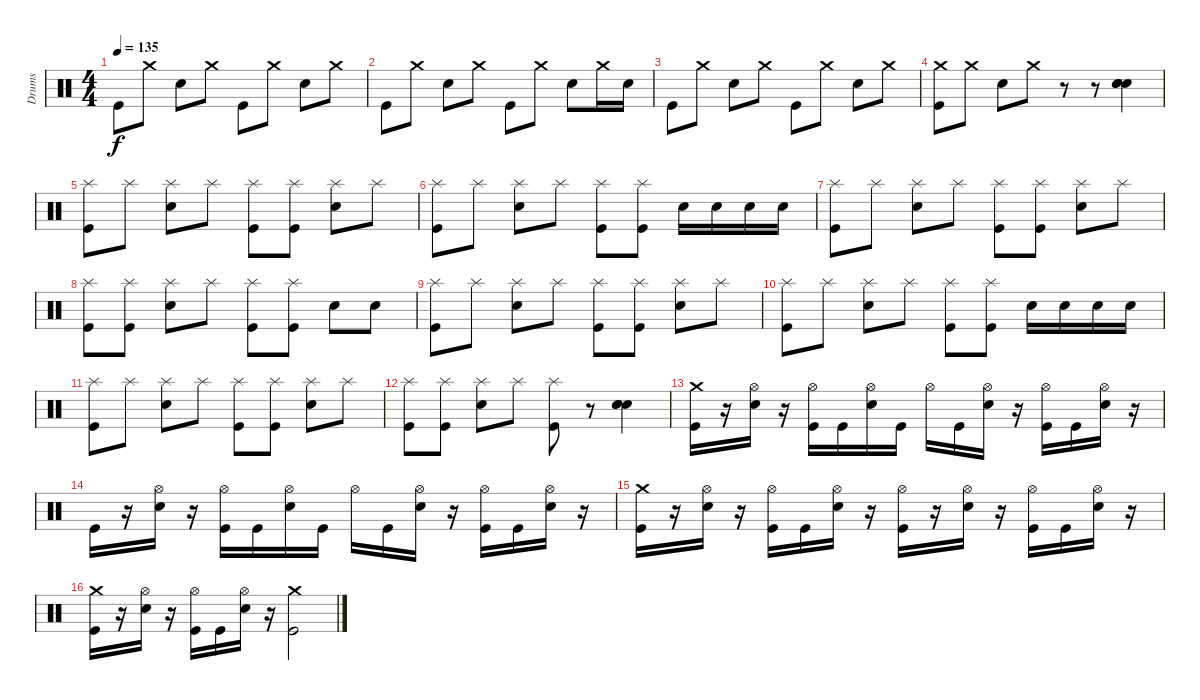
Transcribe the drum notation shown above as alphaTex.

\track ("Drums" "Drums") {instrument percussion}
\staff {score}
\articulation defaults
\ts (4 4)
\tempo 135
\clef neutral
\ks c "Kick (hit)".8{dy f} "Crash medium (hit)".8 "Electric Snare (hit)".8 "Crash medium (hit)".8 "Kick (hit)".8 "Crash medium (hit)".8 "Electric Snare (hit)".8 "Crash medium (hit)".8
|
"Kick (hit)".8 "Crash medium (hit)".8 "Electric Snare (hit)".8 "Crash medium (hit)".8 "Kick (hit)".8 "Crash medium (hit)".8 "Electric Snare (hit)".8 "Crash medium (hit)".16 "Electric Snare (hit)".16 |
"Kick (hit)".8 "Crash medium (hit)".8 "Electric Snare (hit)".8 "Crash medium (hit)".8 "Kick (hit)".8 "Crash medium (hit)".8 "Electric Snare (hit)".8 "Crash medium (hit)".8 |
("Crash medium (hit)" "Kick (hit)").8 "Crash medium (hit)".8 "Electric Snare (hit)".8 "Crash medium (hit)".8 r.8 r.8 ("Hand Clap (hit)" "Hand Clap (hit)" "Hand Clap (hit)").4 |
("Splash (hit)" "Kick (hit)").8 "Splash (hit)".8 ("Splash (hit)" "Electric Snare (hit)").8 "Splash (hit)".8 ("Splash (hit)" "Kick (hit)").8 ("Splash (hit)" "Kick (hit)").8 ("Splash (hit)" "Electric Snare (hit)").8 "Splash (hit)".8 |
("Splash (hit)" "Kick (hit)").8 "Splash (hit)".8 ("Splash (hit)" "Electric Snare (hit)").8 "Splash (hit)".8 ("Splash (hit)" "Kick (hit)").8 ("Splash (hit)" "Kick (hit)").8 "Electric Snare (hit)".16 "Electric Snare (hit)".16 "Electric Snare (hit)".16 "Electric Snare (hit)".16 |
("Splash (hit)" "Kick (hit)").8 "Splash (hit)".8 ("Splash (hit)" "Electric Snare (hit)").8 "Splash (hit)".8 ("Splash (hit)" "Kick (hit)").8 ("Splash (hit)" "Kick (hit)").8 ("Splash (hit)" "Electric Snare (hit)").8 "Splash (hit)".8 |
("Splash (hit)" "Kick (hit)").8 ("Splash (hit)" "Kick (hit)").8 ("Splash (hit)" "Electric Snare (hit)").8 "Splash (hit)".8 ("Splash (hit)" "Kick (hit)").8 ("Splash (hit)" "Kick (hit)").8 "Electric Snare (hit)".8 "Electric Snare (hit)".8 |
("Splash (hit)" "Kick (hit)").8 "Splash (hit)".8 ("Splash (hit)" "Electric Snare (hit)").8 "Splash (hit)".8 ("Splash (hit)" "Kick (hit)").8 ("Splash (hit)" "Kick (hit)").8 ("Splash (hit)" "Electric Snare (hit)").8 "Splash (hit)".8 |
("Splash (hit)" "Kick (hit)").8 "Splash (hit)".8 ("Splash (hit)" "Electric Snare (hit)").8 "Splash (hit)".8 ("Splash (hit)" "Kick (hit)").8 ("Splash (hit)" "Kick (hit)").8 "Electric Snare (hit)".16 "Electric Snare (hit)".16 "Electric Snare (hit)".16 "Electric Snare (hit)".16 |
("Splash (hit)" "Kick (hit)").8 "Splash (hit)".8 ("Splash (hit)" "Electric Snare (hit)").8 "Splash (hit)".8 ("Splash (hit)" "Kick (hit)").8 ("Splash (hit)" "Kick (hit)").8 ("Splash (hit)" "Electric Snare (hit)").8 "Splash (hit)".8 |
("Splash (hit)" "Kick (hit)").8 ("Splash (hit)" "Kick (hit)").8 ("Splash (hit)" "Electric Snare (hit)").8 "Splash (hit)".8 ("Splash (hit)" "Kick (hit)").8 r.8 ("Hand Clap (hit)" "Hand Clap (hit)" "Hand Clap (hit)").4 |
("Crash medium (hit)" "Kick (hit)").16 r.16 ("Electric Snare (hit)" "Hi-Hat (open)").16 r.16 ("Hi-Hat (open)" "Kick (hit)").16 "Kick (hit)".16 ("Electric Snare (hit)" "Hi-Hat (open)").16 "Kick (hit)".16 "Hi-Hat (open)".16 "Kick (hit)".16 ("Electric Snare (hit)" "Hi-Hat (open)").16 r.16 ("Hi-Hat (open)" "Kick (hit)").16 "Kick (hit)".16 ("Electric Snare (hit)" "Hi-Hat (open)").16 r.16 |
"Kick (hit)".16 r.16 ("Electric Snare (hit)" "Hi-Hat (open)").16 r.16 ("Hi-Hat (open)" "Kick (hit)").16 "Kick (hit)".16 ("Electric Snare (hit)" "Hi-Hat (open)").16 "Kick (hit)".16 "Hi-Hat (open)".16 "Kick (hit)".16 ("Electric Snare (hit)" "Hi-Hat (open)").16 r.16 ("Hi-Hat (open)" "Kick (hit)").16 "Kick (hit)".16 ("Electric Snare (hit)" "Hi-Hat (open)").16 r.16 |
("Crash medium (hit)" "Kick (hit)").16 r.16 ("Electric Snare (hit)" "Hi-Hat (open)").16 r.16 ("Hi-Hat (open)" "Kick (hit)").16 "Kick (hit)".16 ("Electric Snare (hit)" "Hi-Hat (open)").16 r.16 ("Hi-Hat (open)" "Kick (hit)").16 r.16 ("Electric Snare (hit)" "Hi-Hat (open)").16 r.16 ("Hi-Hat (open)" "Kick (hit)").16 "Kick (hit)".16 ("Electric Snare (hit)" "Hi-Hat (open)").16 r.16 |
("Crash medium (hit)" "Kick (hit)").16 r.16 ("Electric Snare (hit)" "Hi-Hat (open)").16 r.16 ("Hi-Hat (open)" "Kick (hit)").16 "Kick (hit)".16 ("Electric Snare (hit)" "Hi-Hat (open)").16 r.16 ("Crash medium (hit)" "Kick (hit)").2
